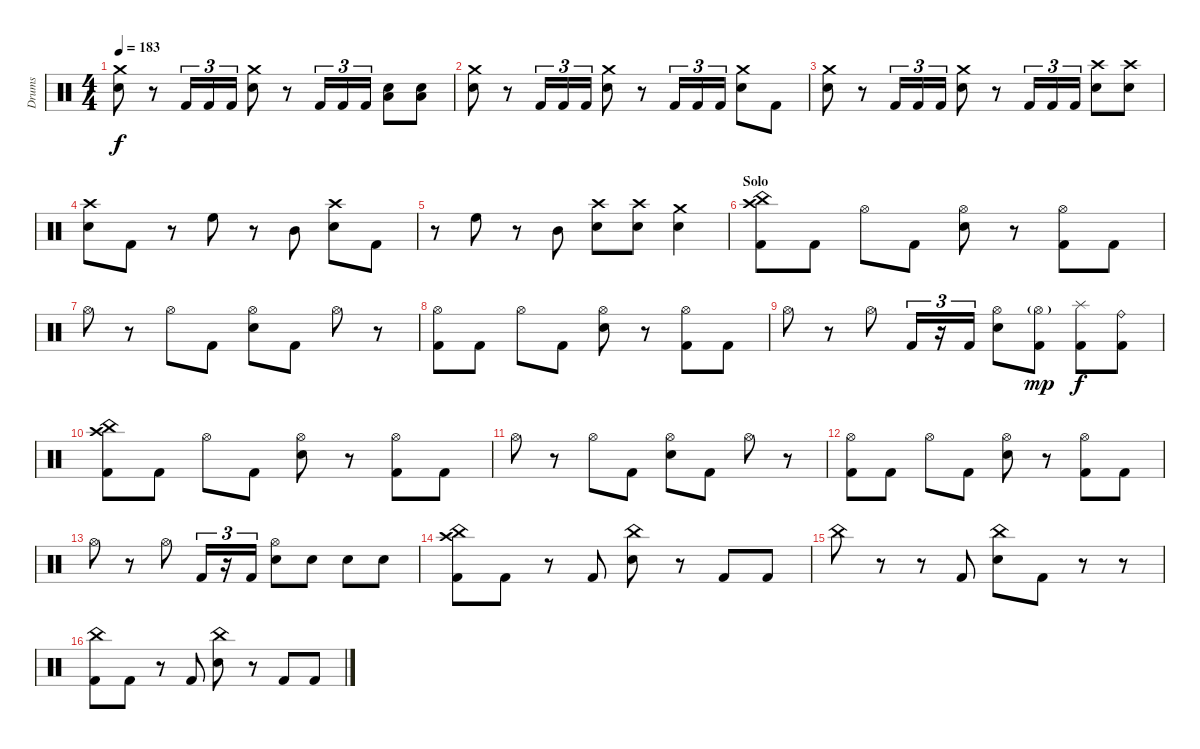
\track ("Drums" "Drums") {instrument percussion}
\staff {score}
\articulation defaults
\ts (4 4)
\tempo 183
\clef neutral
\ks c
("Crash medium (hit)" "Electric Snare (hit)").8{dy f} r.8 "Kick (hit) 2".16{tu (3 2)} "Kick (hit) 2".16{tu (3 2)} "Kick (hit) 2".16{tu (3 2)} ("Crash medium (hit)" "Electric Snare (hit)").8 r.8 "Kick (hit) 2".16{tu (3 2)} "Kick (hit) 2".16{tu (3 2)} "Kick (hit) 2".16{tu (3 2)} ("Electric Snare (hit)" "Low Floor Tom (hit)").8 ("Electric Snare (hit)" "Low Floor Tom (hit)").8 |
("Crash medium (hit)" "Electric Snare (hit)").8 r.8 "Kick (hit) 2".16{tu (3 2)} "Kick (hit) 2".16{tu (3 2)} "Kick (hit) 2".16{tu (3 2)} ("Crash medium (hit)" "Electric Snare (hit)").8 r.8 "Kick (hit) 2".16{tu (3 2)} "Kick (hit) 2".16{tu (3 2)} "Kick (hit) 2".16{tu (3 2)} ("Crash medium (hit)" "Electric Snare (hit)").8 "Kick (hit) 2".8 |
("Crash medium (hit)" "Electric Snare (hit)").8 r.8 "Kick (hit) 2".16{tu (3 2)} "Kick (hit) 2".16{tu (3 2)} "Kick (hit) 2".16{tu (3 2)} ("Crash medium (hit)" "Electric Snare (hit)").8 r.8 "Kick (hit) 2".16{tu (3 2)} "Kick (hit) 2".16{tu (3 2)} "Kick (hit) 2".16{tu (3 2)} ("Crash high (hit)" "Electric Snare (hit)").8 ("Crash high (hit)" "Electric Snare (hit)").8 |
("Crash high (hit)" "Electric Snare (hit)").8 "Kick (hit) 2".8 r.8 "High Floor Tom (hit)".8 r.8 "Mid Tom (hit)".8 ("Crash high (hit)" "Electric Snare (hit)").8 "Kick (hit) 2".8 |
r.8 "High Floor Tom (hit)".8 r.8 "Mid Tom (hit)".8 ("Crash high (hit)" "Electric Snare (hit)").8 ("Crash high (hit)" "Electric Snare (hit)").8 ("Crash medium (hit)" "Electric Snare (hit)").4 |
\section ("" "Solo")
("Crash high (hit)" "China (hit)" "Kick (hit) 2").8 "Kick (hit) 2".8 "Hi-Hat (open)".8 "Kick (hit) 2".8 ("Hi-Hat (open)" "Electric Snare (hit)").8 r.8 ("Hi-Hat (open)" "Kick (hit) 2").8 "Kick (hit) 2".8 |
"Hi-Hat (open)".8 r.8 "Hi-Hat (open)".8 "Kick (hit) 2".8 ("Hi-Hat (open)" "Electric Snare (hit)").8 "Kick (hit) 2".8 "Hi-Hat (open)".8 r.8 |
("Hi-Hat (open)" "Kick (hit) 2").8 "Kick (hit) 2".8 "Hi-Hat (open)".8 "Kick (hit) 2".8 ("Hi-Hat (open)" "Electric Snare (hit)").8 r.8 ("Hi-Hat (open)" "Kick (hit) 2").8 "Kick (hit) 2".8 |
"Hi-Hat (open)".8 r.8 "Hi-Hat (open)".8 "Kick (hit) 2".16{tu (3 2)} r.16{tu (3 2)} "Kick (hit) 2".16{tu (3 2)} ("Hi-Hat (open)" "Electric Snare (hit)").8 ("Hi-Hat (open)"{g} "Kick (hit) 2").8{dy mp} ("Splash (hit)" "Kick (hit) 2").8{dy f} ("Ride (bell)" "Kick (hit) 2").8 |
("Crash high (hit)" "China (hit)" "Kick (hit) 2").8 "Kick (hit) 2".8 "Hi-Hat (open)".8 "Kick (hit) 2".8 ("Hi-Hat (open)" "Electric Snare (hit)").8 r.8 ("Hi-Hat (open)" "Kick (hit) 2").8 "Kick (hit) 2".8 |
"Hi-Hat (open)".8 r.8 "Hi-Hat (open)".8 "Kick (hit) 2".8 ("Hi-Hat (open)" "Electric Snare (hit)").8 "Kick (hit) 2".8 "Hi-Hat (open)".8 r.8 |
("Hi-Hat (open)" "Kick (hit) 2").8 "Kick (hit) 2".8 "Hi-Hat (open)".8 "Kick (hit) 2".8 ("Hi-Hat (open)" "Electric Snare (hit)").8 r.8 ("Hi-Hat (open)" "Kick (hit) 2").8 "Kick (hit) 2".8 |
"Hi-Hat (open)".8 r.8 "Hi-Hat (open)".8 "Kick (hit) 2".16{tu (3 2)} r.16{tu (3 2)} "Kick (hit) 2".16{tu (3 2)} ("Hi-Hat (open)" "Electric Snare (hit)").8 "Electric Snare (hit)".8 "Electric Snare (hit)".8 "Electric Snare (hit)".8 |
\section ("" "")
("China (hit)" "Crash high (hit)" "Kick (hit) 2").8 "Kick (hit) 2".8 r.8 "Kick (hit) 2".8 ("China (hit)" "Electric Snare (hit)").8 r.8 "Kick (hit) 2".8 "Kick (hit) 2".8 |
"China (hit)".8 r.8 r.8 "Kick (hit) 2".8 ("China (hit)" "Electric Snare (hit)").8 "Kick (hit) 2".8 r.8 r.8 |
("China (hit)" "Kick (hit) 2").8 "Kick (hit) 2".8 r.8 "Kick (hit) 2".8 ("China (hit)" "Electric Snare (hit)").8 r.8 "Kick (hit) 2".8 "Kick (hit) 2".8
